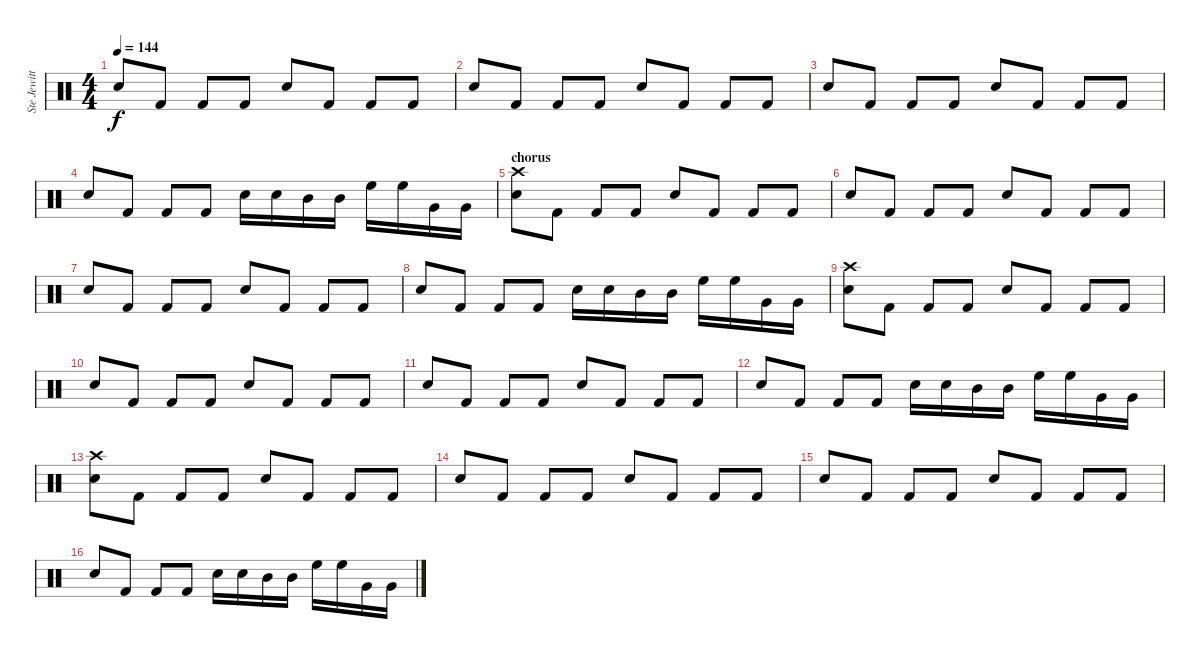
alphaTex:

\track ("Ste Jewitt (Drummer)" "Ste Jewitt") {instrument percussion}
\staff {score}
\articulation defaults
\ts (4 4)
\tempo 144
\clef neutral
\ks c "Snare (hit) 2".8{dy f} "Kick (hit) 2".8 "Kick (hit) 2".8 "Kick (hit) 2".8 "Snare (hit) 2".8 "Kick (hit) 2".8 "Kick (hit) 2".8 "Kick (hit) 2".8
|
"Snare (hit) 2".8 "Kick (hit) 2".8 "Kick (hit) 2".8 "Kick (hit) 2".8 "Snare (hit) 2".8 "Kick (hit) 2".8 "Kick (hit) 2".8 "Kick (hit) 2".8 |
"Snare (hit) 2".8 "Kick (hit) 2".8 "Kick (hit) 2".8 "Kick (hit) 2".8 "Snare (hit) 2".8 "Kick (hit) 2".8 "Kick (hit) 2".8 "Kick (hit) 2".8 |
"Snare (hit) 2".8 "Kick (hit) 2".8 "Kick (hit) 2".8 "Kick (hit) 2".8 "Snare (hit) 2".16 "Snare (hit) 2".16 "Mid Tom (hit)".16 "Mid Tom (hit)".16 "High Floor Tom (hit)".16 "High Floor Tom (hit)".16 "Very Low Tom (hit)".16 "Very Low Tom (hit)".16 |
\section ("" "chorus")
("Crash high (hit)" "Snare (hit) 2").8 "Kick (hit) 2".8 "Kick (hit) 2".8 "Kick (hit) 2".8 "Snare (hit) 2".8 "Kick (hit) 2".8 "Kick (hit) 2".8 "Kick (hit) 2".8 |
"Snare (hit) 2".8 "Kick (hit) 2".8 "Kick (hit) 2".8 "Kick (hit) 2".8 "Snare (hit) 2".8 "Kick (hit) 2".8 "Kick (hit) 2".8 "Kick (hit) 2".8 |
"Snare (hit) 2".8 "Kick (hit) 2".8 "Kick (hit) 2".8 "Kick (hit) 2".8 "Snare (hit) 2".8 "Kick (hit) 2".8 "Kick (hit) 2".8 "Kick (hit) 2".8 |
"Snare (hit) 2".8 "Kick (hit) 2".8 "Kick (hit) 2".8 "Kick (hit) 2".8 "Snare (hit) 2".16 "Snare (hit) 2".16 "Mid Tom (hit)".16 "Mid Tom (hit)".16 "High Floor Tom (hit)".16 "High Floor Tom (hit)".16 "Very Low Tom (hit)".16 "Very Low Tom (hit)".16 |
("Crash high (hit)" "Snare (hit) 2").8 "Kick (hit) 2".8 "Kick (hit) 2".8 "Kick (hit) 2".8 "Snare (hit) 2".8 "Kick (hit) 2".8 "Kick (hit) 2".8 "Kick (hit) 2".8 |
"Snare (hit) 2".8 "Kick (hit) 2".8 "Kick (hit) 2".8 "Kick (hit) 2".8 "Snare (hit) 2".8 "Kick (hit) 2".8 "Kick (hit) 2".8 "Kick (hit) 2".8 |
"Snare (hit) 2".8 "Kick (hit) 2".8 "Kick (hit) 2".8 "Kick (hit) 2".8 "Snare (hit) 2".8 "Kick (hit) 2".8 "Kick (hit) 2".8 "Kick (hit) 2".8 |
"Snare (hit) 2".8 "Kick (hit) 2".8 "Kick (hit) 2".8 "Kick (hit) 2".8 "Snare (hit) 2".16 "Snare (hit) 2".16 "Mid Tom (hit)".16 "Mid Tom (hit)".16 "High Floor Tom (hit)".16 "High Floor Tom (hit)".16 "Very Low Tom (hit)".16 "Very Low Tom (hit)".16 |
("Crash high (hit)" "Snare (hit) 2").8 "Kick (hit) 2".8 "Kick (hit) 2".8 "Kick (hit) 2".8 "Snare (hit) 2".8 "Kick (hit) 2".8 "Kick (hit) 2".8 "Kick (hit) 2".8 |
"Snare (hit) 2".8 "Kick (hit) 2".8 "Kick (hit) 2".8 "Kick (hit) 2".8 "Snare (hit) 2".8 "Kick (hit) 2".8 "Kick (hit) 2".8 "Kick (hit) 2".8 |
"Snare (hit) 2".8 "Kick (hit) 2".8 "Kick (hit) 2".8 "Kick (hit) 2".8 "Snare (hit) 2".8 "Kick (hit) 2".8 "Kick (hit) 2".8 "Kick (hit) 2".8 |
"Snare (hit) 2".8 "Kick (hit) 2".8 "Kick (hit) 2".8 "Kick (hit) 2".8 "Snare (hit) 2".16 "Snare (hit) 2".16 "Mid Tom (hit)".16 "Mid Tom (hit)".16 "High Floor Tom (hit)".16 "High Floor Tom (hit)".16 "Very Low Tom (hit)".16 "Very Low Tom (hit)".16
